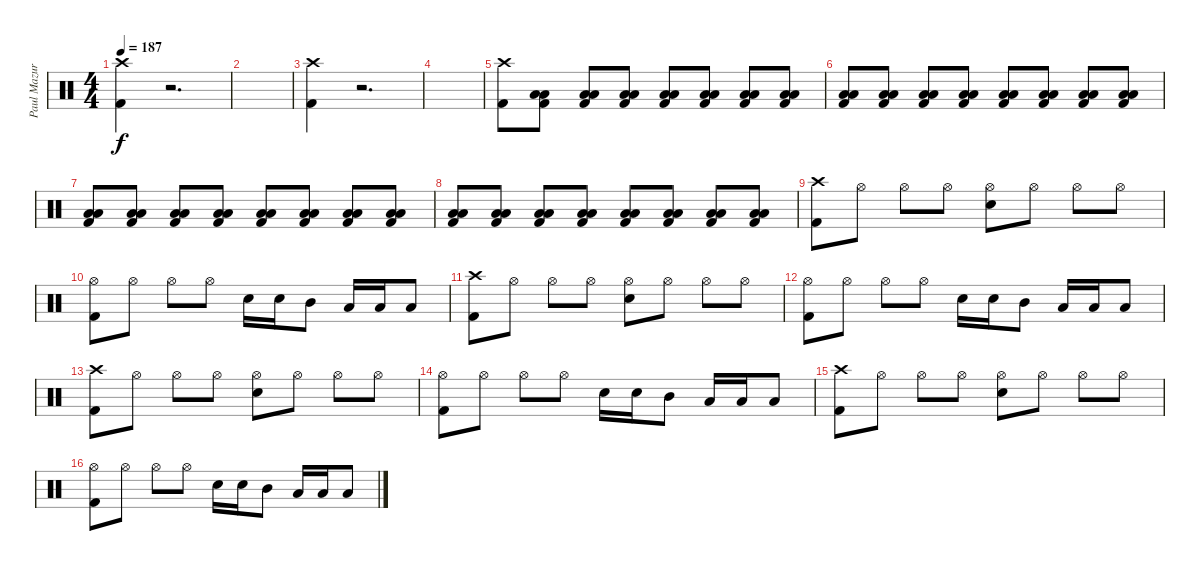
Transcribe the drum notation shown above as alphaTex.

\track ("Paul Mazurkiewicz - Drums" "Paul Mazur") {instrument percussion}
\staff {score}
\articulation defaults
\ts (4 4)
\tempo 187
\clef neutral
\ks c
("Crash high (hit)" "Kick (hit) 2").4{dy f} r.2{d volume 0} |
|
("Crash high (hit)" "Kick (hit) 2").4{volume 16} r.2{d volume 0} |
|
("Kick (hit) 2" "Crash high (hit)").8{volume 16} ("Low Tom (hit)" "Low Floor Tom (hit)" "Kick (hit) 2").8 ("Low Tom (hit)" "Low Floor Tom (hit)" "Kick (hit) 2").8 ("Low Tom (hit)" "Low Floor Tom (hit)" "Kick (hit) 2").8 ("Low Tom (hit)" "Low Floor Tom (hit)" "Kick (hit) 2").8 ("Low Tom (hit)" "Low Floor Tom (hit)" "Kick (hit) 2").8 ("Low Tom (hit)" "Low Floor Tom (hit)" "Kick (hit) 2").8 ("Low Tom (hit)" "Low Floor Tom (hit)" "Kick (hit) 2").8 |
("Low Tom (hit)" "Low Floor Tom (hit)" "Kick (hit) 2").8 ("Low Tom (hit)" "Low Floor Tom (hit)" "Kick (hit) 2").8 ("Low Tom (hit)" "Low Floor Tom (hit)" "Kick (hit) 2").8 ("Low Tom (hit)" "Low Floor Tom (hit)" "Kick (hit) 2").8 ("Low Tom (hit)" "Low Floor Tom (hit)" "Kick (hit) 2").8 ("Low Tom (hit)" "Low Floor Tom (hit)" "Kick (hit) 2").8 ("Low Tom (hit)" "Low Floor Tom (hit)" "Kick (hit) 2").8 ("Low Tom (hit)" "Low Floor Tom (hit)" "Kick (hit) 2").8 |
("Low Tom (hit)" "Low Floor Tom (hit)" "Kick (hit) 2").8 ("Low Tom (hit)" "Low Floor Tom (hit)" "Kick (hit) 2").8 ("Low Tom (hit)" "Low Floor Tom (hit)" "Kick (hit) 2").8 ("Low Tom (hit)" "Low Floor Tom (hit)" "Kick (hit) 2").8 ("Low Tom (hit)" "Low Floor Tom (hit)" "Kick (hit) 2").8 ("Low Tom (hit)" "Low Floor Tom (hit)" "Kick (hit) 2").8 ("Low Tom (hit)" "Low Floor Tom (hit)" "Kick (hit) 2").8 ("Low Tom (hit)" "Low Floor Tom (hit)" "Kick (hit) 2").8 |
("Low Tom (hit)" "Low Floor Tom (hit)" "Kick (hit) 2").8 ("Low Tom (hit)" "Low Floor Tom (hit)" "Kick (hit) 2").8 ("Low Tom (hit)" "Low Floor Tom (hit)" "Kick (hit) 2").8 ("Low Tom (hit)" "Low Floor Tom (hit)" "Kick (hit) 2").8 ("Low Tom (hit)" "Low Floor Tom (hit)" "Kick (hit) 2").8 ("Low Tom (hit)" "Low Floor Tom (hit)" "Kick (hit) 2").8 ("Low Tom (hit)" "Low Floor Tom (hit)" "Kick (hit) 2").8 ("Low Tom (hit)" "Low Floor Tom (hit)" "Kick (hit) 2").8 |
("Crash high (hit)" "Kick (hit) 2").8 "Hi-Hat (open)".8 "Hi-Hat (open)".8 "Hi-Hat (open)".8 ("Hi-Hat (open)" "Snare (hit) 2").8 "Hi-Hat (open)".8 "Hi-Hat (open)".8 "Hi-Hat (open)".8 |
("Hi-Hat (open)" "Kick (hit) 2").8 "Hi-Hat (open)".8 "Hi-Hat (open)".8 "Hi-Hat (open)".8 "Snare (hit) 2".16 "Snare (hit) 2".16 "Mid Tom (hit)".8 "Low Tom (hit)".16 "Low Tom (hit)".16 "Low Floor Tom (hit)".8 |
("Crash high (hit)" "Kick (hit) 2").8 "Hi-Hat (open)".8 "Hi-Hat (open)".8 "Hi-Hat (open)".8 ("Hi-Hat (open)" "Snare (hit) 2").8 "Hi-Hat (open)".8 "Hi-Hat (open)".8 "Hi-Hat (open)".8 |
("Hi-Hat (open)" "Kick (hit) 2").8 "Hi-Hat (open)".8 "Hi-Hat (open)".8 "Hi-Hat (open)".8 "Snare (hit) 2".16 "Snare (hit) 2".16 "Mid Tom (hit)".8 "Low Tom (hit)".16 "Low Tom (hit)".16 "Low Floor Tom (hit)".8 |
("Crash high (hit)" "Kick (hit) 2").8 "Hi-Hat (open)".8 "Hi-Hat (open)".8 "Hi-Hat (open)".8 ("Hi-Hat (open)" "Snare (hit) 2").8 "Hi-Hat (open)".8 "Hi-Hat (open)".8 "Hi-Hat (open)".8 |
("Hi-Hat (open)" "Kick (hit) 2").8 "Hi-Hat (open)".8 "Hi-Hat (open)".8 "Hi-Hat (open)".8 "Snare (hit) 2".16 "Snare (hit) 2".16 "Mid Tom (hit)".8 "Low Tom (hit)".16 "Low Tom (hit)".16 "Low Floor Tom (hit)".8 |
("Crash high (hit)" "Kick (hit) 2").8 "Hi-Hat (open)".8 "Hi-Hat (open)".8 "Hi-Hat (open)".8 ("Hi-Hat (open)" "Snare (hit) 2").8 "Hi-Hat (open)".8 "Hi-Hat (open)".8 "Hi-Hat (open)".8 |
("Hi-Hat (open)" "Kick (hit) 2").8 "Hi-Hat (open)".8 "Hi-Hat (open)".8 "Hi-Hat (open)".8 "Snare (hit) 2".16 "Snare (hit) 2".16 "Mid Tom (hit)".8 "Low Tom (hit)".16 "Low Tom (hit)".16 "Low Floor Tom (hit)".8
